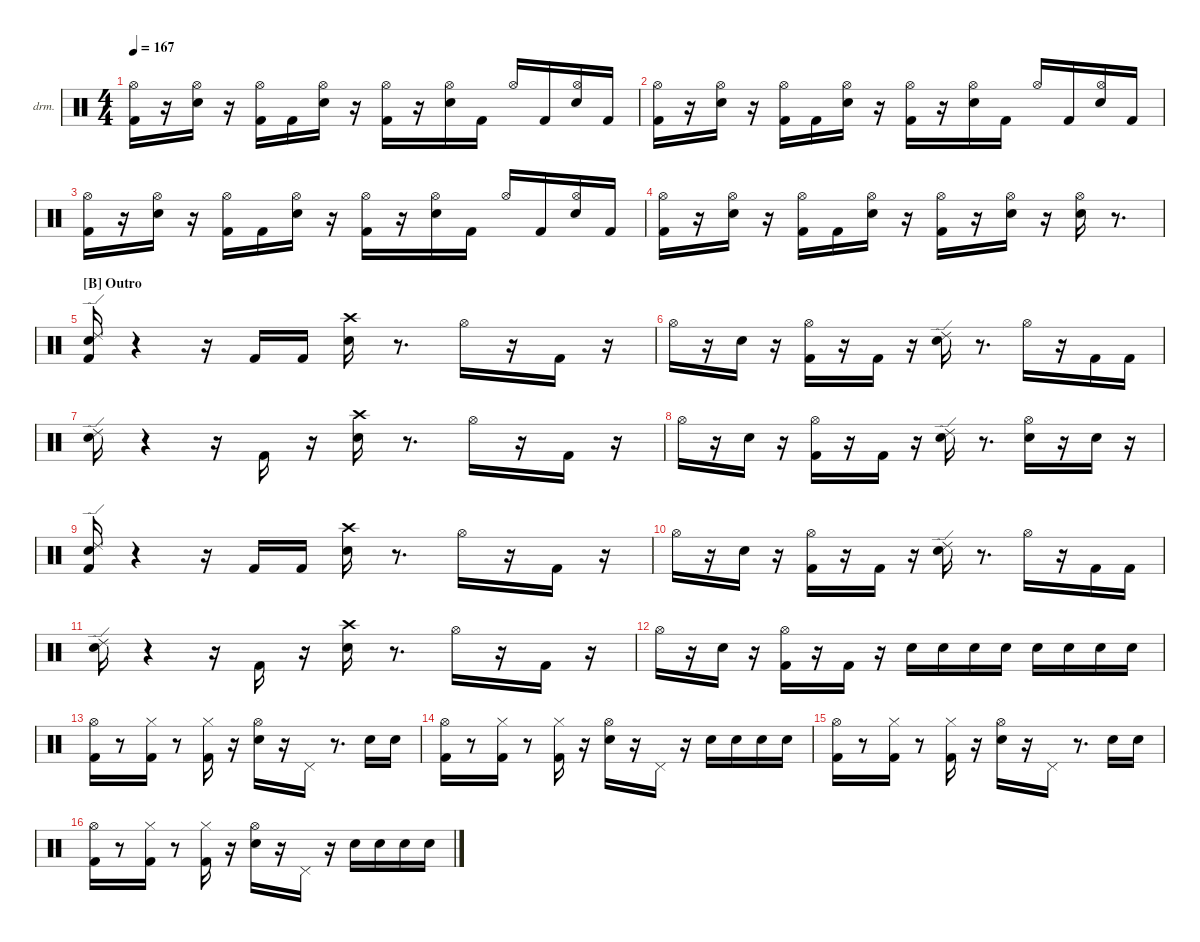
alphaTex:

\hideDynamics
\bracketExtendMode nobrackets
\firstSystemTrackNameOrientation horizontal
\otherSystemsTrackNameOrientation horizontal
\track ("Drums" "drm.") {instrument percussion}
\staff {score}
\articulation defaults
\ts (4 4)
\tempo 167
\clef neutral
\ks aminor
("Kick (hit) 2" "Hi-Hat (open)"{acc #}).16{dy fff beam Down} r.16{beam Down} ("Hi-Hat (open)"{acc #} "Snare (hit) 2").16{dy ff beam Down} r.16{beam Down} ("Kick (hit) 2" "Hi-Hat (open)"{acc #}).16{beam Down} "Kick (hit) 2".16{beam Down} ("Snare (hit) 2" "Hi-Hat (open)"{acc #}).16{dy mf beam Down} r.16{beam Down} ("Hi-Hat (open)"{acc #} "Kick (hit) 2").16{dy ff beam Down} r.16{beam Down} ("Hi-Hat (open)"{acc #} "Snare (hit) 2").16{beam Down} "Kick (hit) 2".16{beam Down} "Hi-Hat (open)"{acc #}.16{beam Up} "Kick (hit) 2".16{beam Up} ("Hi-Hat (open)"{acc #} "Snare (hit) 2").16{dy mf beam Up} "Kick (hit) 2".16{beam Up} |
("Kick (hit) 2" "Hi-Hat (open)"{acc #}).16{dy fff beam Down} r.16{beam Down} ("Snare (hit) 2" "Hi-Hat (open)"{acc #}).16{dy ff beam Down} r.16{beam Down} ("Kick (hit) 2" "Hi-Hat (open)"{acc #}).16{beam Down} "Kick (hit) 2".16{beam Down} ("Snare (hit) 2" "Hi-Hat (open)"{acc #}).16{dy mf beam Down} r.16{beam Down} ("Kick (hit) 2" "Hi-Hat (open)"{acc #}).16{dy ff beam Down} r.16{beam Down} ("Snare (hit) 2" "Hi-Hat (open)"{acc #}).16{dy mf beam Down} "Kick (hit) 2".16{dy ff beam Down} "Hi-Hat (open)"{acc #}.16{beam Up} "Kick (hit) 2".16{beam Up} ("Hi-Hat (open)"{acc #} "Snare (hit) 2").16{dy f beam Up} "Kick (hit) 2".16{dy ff beam Up} |
("Hi-Hat (open)"{acc #} "Kick (hit) 2").16{dy fff beam Down} r.16{beam Down} ("Hi-Hat (open)"{acc #} "Snare (hit) 2").16{dy mf beam Down} r.16{beam Down} ("Kick (hit) 2" "Hi-Hat (open)"{acc #}).16{dy ff beam Down} "Kick (hit) 2".16{beam Down} ("Snare (hit) 2" "Hi-Hat (open)"{acc #}).16{dy mf beam Down} r.16{beam Down} ("Kick (hit) 2" "Hi-Hat (open)"{acc #}).16{dy ff beam Down} r.16{beam Down} ("Snare (hit) 2" "Hi-Hat (open)"{acc #}).16{dy mf beam Down} "Kick (hit) 2".16{dy ff beam Down} "Hi-Hat (open)"{acc #}.16{beam Up} "Kick (hit) 2".16{beam Up} ("Snare (hit) 2" "Hi-Hat (open)"{acc #}).16{dy mf beam Up} "Kick (hit) 2".16{beam Up} |
("Kick (hit) 2" "Hi-Hat (open)"{acc #}).16{dy fff beam Down} r.16{beam Down} ("Snare (hit) 2" "Hi-Hat (open)"{acc #}).16{dy ff beam Down} r.16{beam Down} ("Kick (hit) 2" "Hi-Hat (open)"{acc #}).16{beam Down} "Kick (hit) 2".16{beam Down} ("Snare (hit) 2" "Hi-Hat (open)"{acc #}).16{beam Down} r.16{beam Down} ("Hi-Hat (open)"{acc #} "Kick (hit) 2").16{beam Down} r.16{beam Down} ("Hi-Hat (open)"{acc #} "Snare (hit) 2").16{dy f beam Down} r.16{beam Down} ("Snare (hit) 2" "Hi-Hat (open)"{acc #}).16{dy fff beam Down} r.8{d beam Down} |
\section ("B" "Outro")
("Snare (hit) 2" "Ride (edge) 2" "Kick (hit) 2").16{beam Up} r.4{beam Up} r.16{beam Up} "Kick (hit) 2".16{dy mf beam Up} "Kick (hit) 2".16{dy ff beam Up} ("Snare (hit) 2" "Crash high (hit)"{acc #}).16{beam Down} r.8{d beam Down} "Hi-Hat (open)"{acc #}.16{dy mf beam Down} r.16{beam Down} "Kick (hit) 2".16{dy ff beam Up} r.16{beam Up} |
"Hi-Hat (open)"{acc #}.16{dy fff beam Down} r.16{beam Down} "Snare (hit) 2".16{beam Down} r.16{beam Down} ("Hi-Hat (open)"{acc #} "Kick (hit) 2").16{dy f beam Down} r.16{beam Down} "Kick (hit) 2".16{dy ff beam Up} r.16{beam Up} ("Ride (edge) 2" "Snare (hit) 2").16{dy fff beam Down} r.8{d beam Down} "Hi-Hat (open)"{acc #}.16{dy f beam Down} r.16{beam Down} "Kick (hit) 2".16{dy mf beam Up} "Kick (hit) 2".16{dy ff beam Up} |
("Snare (hit) 2" "Ride (edge) 2").16{dy fff beam Down} r.4{beam Down} r.16{beam Down} "Kick (hit) 2".16{dy mf beam Up} r.16{beam Up} ("Snare (hit) 2" "Crash high (hit)"{acc #}).16{dy ff beam Down} r.8{d beam Down} "Hi-Hat (open)"{acc #}.16{dy mf beam Down} r.16{beam Down} "Kick (hit) 2".16{dy ff beam Up} r.16{beam Up} |
"Hi-Hat (open)"{acc #}.16{dy fff beam Down} r.16{beam Down} "Snare (hit) 2".16{beam Down} r.16{beam Down} ("Kick (hit) 2" "Hi-Hat (open)"{acc #}).16{dy f beam Down} r.16{beam Down} "Kick (hit) 2".16{dy ff beam Up} r.16{beam Up} ("Snare (hit) 2" "Ride (edge) 2").16{beam Down} r.8{d beam Down} ("Snare (hit) 2" "Hi-Hat (open)"{acc #}).16{dy f beam Down} r.16{beam Down} "Snare (hit) 2".16{dy mp beam Down} r.16{beam Down} |
("Snare (hit) 2" "Ride (edge) 2" "Kick (hit) 2").16{dy fff beam Up} r.4{beam Up} r.16{beam Up} "Kick (hit) 2".16{dy mf beam Up} "Kick (hit) 2".16{dy ff beam Up} ("Snare (hit) 2" "Crash high (hit)"{acc #}).16{beam Down} r.8{d beam Down} "Hi-Hat (open)"{acc #}.16{dy mf beam Down} r.16{beam Down} "Kick (hit) 2".16{dy ff beam Up} r.16{beam Up} |
"Hi-Hat (open)"{acc #}.16{dy fff beam Down} r.16{beam Down} "Snare (hit) 2".16{beam Down} r.16{beam Down} ("Kick (hit) 2" "Hi-Hat (open)"{acc #}).16{dy mf beam Down} r.16{beam Down} "Kick (hit) 2".16{dy ff beam Up} r.16{beam Up} ("Snare (hit) 2" "Ride (edge) 2").16{beam Down} r.8{d beam Down} "Hi-Hat (open)"{acc #}.16{dy f beam Down} r.16{beam Down} "Kick (hit) 2".16{dy mf beam Up} "Kick (hit) 2".16{dy ff beam Up} |
("Snare (hit) 2" "Ride (edge) 2").16{dy fff beam Down} r.4{beam Down} r.16{beam Down} "Kick (hit) 2".16{dy mf beam Up} r.16{beam Up} ("Snare (hit) 2" "Crash high (hit)"{acc #}).16{dy ff beam Down} r.8{d beam Down} "Hi-Hat (open)"{acc #}.16{dy mf beam Down} r.16{beam Down} "Kick (hit) 2".16{dy ff beam Up} r.16{beam Up} |
"Hi-Hat (open)"{acc #}.16{dy fff beam Down} r.16{beam Down} "Snare (hit) 2".16{beam Down} r.16{beam Down} ("Kick (hit) 2" "Hi-Hat (open)"{acc #}).16{dy mf beam Down} r.16{beam Down} "Kick (hit) 2".16{dy ff beam Up} r.16{beam Up} "Snare (hit) 2".16{beam Down} "Snare (hit) 2".16{dy p beam Down} "Snare (hit) 2".16{dy mf beam Down} "Snare (hit) 2".16{dy p beam Down} "Snare (hit) 2".16{dy fff beam Down} "Snare (hit) 2".16{dy f beam Down} "Snare (hit) 2".16{dy ff beam Down} "Snare (hit) 2".16{beam Down} |
("Kick (hit) 2" "Hi-Hat (open)"{acc #}).16{dy fff beam Down} r.8{beam Down} ("Kick (hit) 2" "Hi-Hat (closed)"{acc #}).16{dy ff beam Down} r.8{beam Down} ("Kick (hit) 2" "Hi-Hat (closed)"{acc #}).16{beam Down} r.16{beam Down} ("Snare (hit) 2" "Hi-Hat (open)"{acc #}).16{beam Down} r.16{beam Down} "Pedal Hi-Hat (hit)"{acc #}.16{beam Up} r.8{d beam Up} "Snare (hit) 2".16{dy mf beam Down} "Snare (hit) 2".16{dy p beam Down} |
("Hi-Hat (open)"{acc #} "Kick (hit) 2").16{dy fff beam Down} r.8{beam Down} ("Kick (hit) 2" "Hi-Hat (closed)"{acc #}).16{dy ff beam Down} r.8{beam Down} ("Kick (hit) 2" "Hi-Hat (closed)"{acc #}).16{beam Down} r.16{beam Down} ("Snare (hit) 2" "Hi-Hat (open)"{acc #}).16{beam Down} r.16{beam Down} "Pedal Hi-Hat (hit)"{acc #}.16{beam Up} r.16{beam Up} "Snare (hit) 2".16{dy f beam Down} "Snare (hit) 2".16{dy mf beam Down} "Snare (hit) 2".16{dy fff beam Down} "Snare (hit) 2".16{beam Down} |
("Kick (hit) 2" "Hi-Hat (open)"{acc #}).16{dy ff beam Down} r.8{beam Down} ("Kick (hit) 2" "Hi-Hat (closed)"{acc #}).16{beam Down} r.8{beam Down} ("Kick (hit) 2" "Hi-Hat (closed)"{acc #}).16{beam Down} r.16{beam Down} ("Snare (hit) 2" "Hi-Hat (open)"{acc #}).16{beam Down} r.16{beam Down} "Pedal Hi-Hat (hit)"{acc #}.16{beam Up} r.8{d beam Up} "Snare (hit) 2".16{dy mf beam Down} "Snare (hit) 2".16{dy p beam Down} |
("Hi-Hat (open)"{acc #} "Kick (hit) 2").16{dy ff beam Down} r.8{beam Down} ("Kick (hit) 2" "Hi-Hat (closed)"{acc #}).16{beam Down} r.8{beam Down} ("Hi-Hat (closed)"{acc #} "Kick (hit) 2").16{beam Down} r.16{beam Down} ("Snare (hit) 2" "Hi-Hat (open)"{acc #}).16{dy fff beam Down} r.16{beam Down} "Pedal Hi-Hat (hit)"{acc #}.16{dy ff beam Up} r.16{beam Up} "Snare (hit) 2".16{dy f beam Down} "Snare (hit) 2".16{dy mf beam Down} "Snare (hit) 2".16{dy fff beam Down} "Snare (hit) 2".16{beam Down}
